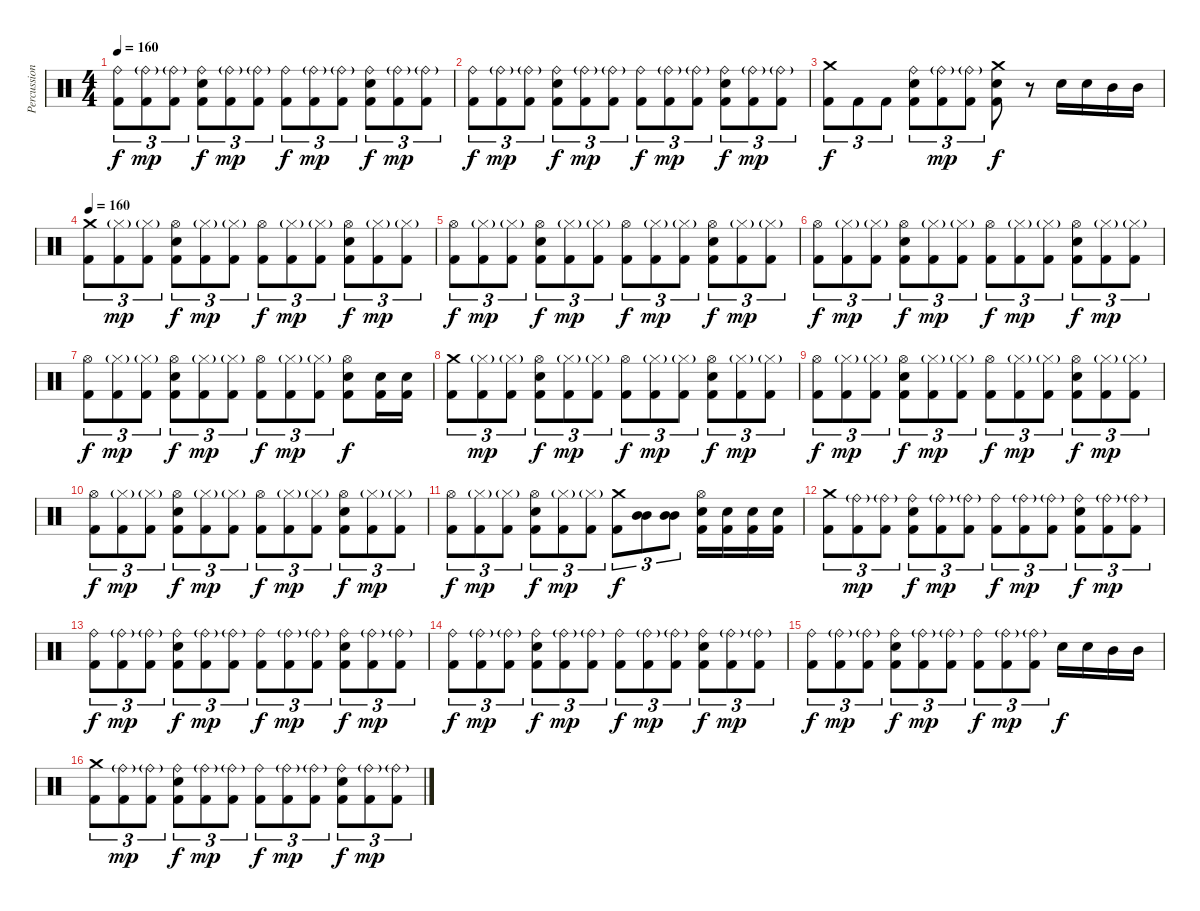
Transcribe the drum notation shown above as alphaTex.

\track ("Percussions" "Percussion") {instrument percussion}
\staff {score}
\articulation defaults
\ts (4 4)
\tempo 160
\clef neutral
\ks c
("Ride (bell)" "Kick (hit) 2").8{tu (3 2) dy f} ("Ride (bell)"{g} "Kick (hit) 2").8{tu (3 2) dy mp} ("Ride (bell)"{g} "Kick (hit) 2").8{tu (3 2)} ("Ride (bell)" "Electric Snare (hit)" "Kick (hit) 2").8{tu (3 2) dy f} ("Ride (bell)"{g} "Kick (hit) 2").8{tu (3 2) dy mp} ("Ride (bell)"{g} "Kick (hit) 2").8{tu (3 2)} ("Ride (bell)" "Kick (hit) 2").8{tu (3 2) dy f} ("Ride (bell)"{g} "Kick (hit) 2").8{tu (3 2) dy mp} ("Ride (bell)"{g} "Kick (hit) 2").8{tu (3 2)} ("Ride (bell)" "Electric Snare (hit)" "Kick (hit) 2").8{tu (3 2) dy f} ("Ride (bell)"{g} "Kick (hit) 2").8{tu (3 2) dy mp} ("Ride (bell)"{g} "Kick (hit) 2").8{tu (3 2)} |
("Ride (bell)" "Kick (hit) 2").8{tu (3 2) dy f} ("Ride (bell)"{g} "Kick (hit) 2").8{tu (3 2) dy mp} ("Ride (bell)"{g} "Kick (hit) 2").8{tu (3 2)} ("Ride (bell)" "Electric Snare (hit)" "Kick (hit) 2").8{tu (3 2) dy f} ("Ride (bell)"{g} "Kick (hit) 2").8{tu (3 2) dy mp} ("Ride (bell)"{g} "Kick (hit) 2").8{tu (3 2)} ("Ride (bell)" "Kick (hit) 2").8{tu (3 2) dy f} ("Ride (bell)"{g} "Kick (hit) 2").8{tu (3 2) dy mp} ("Ride (bell)"{g} "Kick (hit) 2").8{tu (3 2)} ("Ride (bell)" "Electric Snare (hit)" "Kick (hit) 2").8{tu (3 2) dy f} ("Ride (bell)"{g} "Kick (hit) 2").8{tu (3 2) dy mp} ("Ride (bell)"{g} "Kick (hit) 2").8{tu (3 2)} |
("Crash medium (hit)" "Kick (hit) 2").8{tu (3 2) dy f} "Kick (hit) 2".8{tu (3 2)} "Kick (hit) 2".8{tu (3 2)} ("Ride (bell)" "Electric Snare (hit)" "Kick (hit) 2").8{tu (3 2)} ("Ride (bell)"{g} "Kick (hit) 2").8{tu (3 2) dy mp} ("Ride (bell)"{g} "Kick (hit) 2").8{tu (3 2)} ("Crash medium (hit)" "Electric Snare (hit)" "Kick (hit) 2").8{dy f} r.8 "Electric Snare (hit)".16 "Electric Snare (hit)".16 "Mid Tom (hit)".16 "Mid Tom (hit)".16 |
\tempo 160
("Crash medium (hit)" "Kick (hit) 2").8{tu (3 2)} ("Hi-Hat (closed)"{g} "Kick (hit) 2").8{tu (3 2) dy mp} ("Hi-Hat (closed)"{g} "Kick (hit) 2").8{tu (3 2)} ("Hi-Hat (open)" "Electric Snare (hit)" "Kick (hit) 2").8{tu (3 2) dy f} ("Hi-Hat (closed)"{g} "Kick (hit) 2").8{tu (3 2) dy mp} ("Hi-Hat (closed)"{g} "Kick (hit) 2").8{tu (3 2)} ("Hi-Hat (open)" "Kick (hit) 2").8{tu (3 2) dy f} ("Hi-Hat (closed)"{g} "Kick (hit) 2").8{tu (3 2) dy mp} ("Hi-Hat (closed)"{g} "Kick (hit) 2").8{tu (3 2)} ("Hi-Hat (open)" "Electric Snare (hit)" "Kick (hit) 2").8{tu (3 2) dy f} ("Hi-Hat (closed)"{g} "Kick (hit) 2").8{tu (3 2) dy mp} ("Hi-Hat (closed)"{g} "Kick (hit) 2").8{tu (3 2)} |
("Hi-Hat (open)" "Kick (hit) 2").8{tu (3 2) dy f} ("Hi-Hat (closed)"{g} "Kick (hit) 2").8{tu (3 2) dy mp} ("Hi-Hat (closed)"{g} "Kick (hit) 2").8{tu (3 2)} ("Hi-Hat (open)" "Electric Snare (hit)" "Kick (hit) 2").8{tu (3 2) dy f} ("Hi-Hat (closed)"{g} "Kick (hit) 2").8{tu (3 2) dy mp} ("Hi-Hat (closed)"{g} "Kick (hit) 2").8{tu (3 2)} ("Hi-Hat (open)" "Kick (hit) 2").8{tu (3 2) dy f} ("Hi-Hat (closed)"{g} "Kick (hit) 2").8{tu (3 2) dy mp} ("Hi-Hat (closed)"{g} "Kick (hit) 2").8{tu (3 2)} ("Hi-Hat (open)" "Electric Snare (hit)" "Kick (hit) 2").8{tu (3 2) dy f} ("Hi-Hat (closed)"{g} "Kick (hit) 2").8{tu (3 2) dy mp} ("Hi-Hat (closed)"{g} "Kick (hit) 2").8{tu (3 2)} |
("Hi-Hat (open)" "Kick (hit) 2").8{tu (3 2) dy f} ("Hi-Hat (closed)"{g} "Kick (hit) 2").8{tu (3 2) dy mp} ("Hi-Hat (closed)"{g} "Kick (hit) 2").8{tu (3 2)} ("Hi-Hat (open)" "Electric Snare (hit)" "Kick (hit) 2").8{tu (3 2) dy f} ("Hi-Hat (closed)"{g} "Kick (hit) 2").8{tu (3 2) dy mp} ("Hi-Hat (closed)"{g} "Kick (hit) 2").8{tu (3 2)} ("Hi-Hat (open)" "Kick (hit) 2").8{tu (3 2) dy f} ("Hi-Hat (closed)"{g} "Kick (hit) 2").8{tu (3 2) dy mp} ("Hi-Hat (closed)"{g} "Kick (hit) 2").8{tu (3 2)} ("Hi-Hat (open)" "Electric Snare (hit)" "Kick (hit) 2").8{tu (3 2) dy f} ("Hi-Hat (closed)"{g} "Kick (hit) 2").8{tu (3 2) dy mp} ("Hi-Hat (closed)"{g} "Kick (hit) 2").8{tu (3 2)} |
("Hi-Hat (open)" "Kick (hit) 2").8{tu (3 2) dy f} ("Hi-Hat (closed)"{g} "Kick (hit) 2").8{tu (3 2) dy mp} ("Hi-Hat (closed)"{g} "Kick (hit) 2").8{tu (3 2)} ("Hi-Hat (open)" "Electric Snare (hit)" "Kick (hit) 2").8{tu (3 2) dy f} ("Hi-Hat (closed)"{g} "Kick (hit) 2").8{tu (3 2) dy mp} ("Hi-Hat (closed)"{g} "Kick (hit) 2").8{tu (3 2)} ("Hi-Hat (open)" "Kick (hit) 2").8{tu (3 2) dy f} ("Hi-Hat (closed)"{g} "Kick (hit) 2").8{tu (3 2) dy mp} ("Hi-Hat (closed)"{g} "Kick (hit) 2").8{tu (3 2)} ("Hi-Hat (open)" "Electric Snare (hit)" "Kick (hit) 2").8{dy f} ("Electric Snare (hit)" "Kick (hit) 2").16 ("Electric Snare (hit)" "Kick (hit) 2").16 |
("Crash medium (hit)" "Kick (hit) 2").8{tu (3 2)} ("Hi-Hat (closed)"{g} "Kick (hit) 2").8{tu (3 2) dy mp} ("Hi-Hat (closed)"{g} "Kick (hit) 2").8{tu (3 2)} ("Hi-Hat (open)" "Electric Snare (hit)" "Kick (hit) 2").8{tu (3 2) dy f} ("Hi-Hat (closed)"{g} "Kick (hit) 2").8{tu (3 2) dy mp} ("Hi-Hat (closed)"{g} "Kick (hit) 2").8{tu (3 2)} ("Hi-Hat (open)" "Kick (hit) 2").8{tu (3 2) dy f} ("Hi-Hat (closed)"{g} "Kick (hit) 2").8{tu (3 2) dy mp} ("Hi-Hat (closed)"{g} "Kick (hit) 2").8{tu (3 2)} ("Hi-Hat (open)" "Electric Snare (hit)" "Kick (hit) 2").8{tu (3 2) dy f} ("Hi-Hat (closed)"{g} "Kick (hit) 2").8{tu (3 2) dy mp} ("Hi-Hat (closed)"{g} "Kick (hit) 2").8{tu (3 2)} |
("Hi-Hat (open)" "Kick (hit) 2").8{tu (3 2) dy f} ("Hi-Hat (closed)"{g} "Kick (hit) 2").8{tu (3 2) dy mp} ("Hi-Hat (closed)"{g} "Kick (hit) 2").8{tu (3 2)} ("Hi-Hat (open)" "Electric Snare (hit)" "Kick (hit) 2").8{tu (3 2) dy f} ("Hi-Hat (closed)"{g} "Kick (hit) 2").8{tu (3 2) dy mp} ("Hi-Hat (closed)"{g} "Kick (hit) 2").8{tu (3 2)} ("Hi-Hat (open)" "Kick (hit) 2").8{tu (3 2) dy f} ("Hi-Hat (closed)"{g} "Kick (hit) 2").8{tu (3 2) dy mp} ("Hi-Hat (closed)"{g} "Kick (hit) 2").8{tu (3 2)} ("Hi-Hat (open)" "Electric Snare (hit)" "Kick (hit) 2").8{tu (3 2) dy f} ("Hi-Hat (closed)"{g} "Kick (hit) 2").8{tu (3 2) dy mp} ("Hi-Hat (closed)"{g} "Kick (hit) 2").8{tu (3 2)} |
("Hi-Hat (open)" "Kick (hit) 2").8{tu (3 2) dy f} ("Hi-Hat (closed)"{g} "Kick (hit) 2").8{tu (3 2) dy mp} ("Hi-Hat (closed)"{g} "Kick (hit) 2").8{tu (3 2)} ("Hi-Hat (open)" "Electric Snare (hit)" "Kick (hit) 2").8{tu (3 2) dy f} ("Hi-Hat (closed)"{g} "Kick (hit) 2").8{tu (3 2) dy mp} ("Hi-Hat (closed)"{g} "Kick (hit) 2").8{tu (3 2)} ("Hi-Hat (open)" "Kick (hit) 2").8{tu (3 2) dy f} ("Hi-Hat (closed)"{g} "Kick (hit) 2").8{tu (3 2) dy mp} ("Hi-Hat (closed)"{g} "Kick (hit) 2").8{tu (3 2)} ("Hi-Hat (open)" "Electric Snare (hit)" "Kick (hit) 2").8{tu (3 2) dy f} ("Hi-Hat (closed)"{g} "Kick (hit) 2").8{tu (3 2) dy mp} ("Hi-Hat (closed)"{g} "Kick (hit) 2").8{tu (3 2)} |
("Hi-Hat (open)" "Kick (hit) 2").8{tu (3 2) dy f} ("Hi-Hat (closed)"{g} "Kick (hit) 2").8{tu (3 2) dy mp} ("Hi-Hat (closed)"{g} "Kick (hit) 2").8{tu (3 2)} ("Hi-Hat (open)" "Electric Snare (hit)" "Kick (hit) 2").8{tu (3 2) dy f} ("Hi-Hat (closed)"{g} "Kick (hit) 2").8{tu (3 2) dy mp} ("Hi-Hat (closed)"{g} "Kick (hit) 2").8{tu (3 2)} ("Crash medium (hit)" "Kick (hit) 2").8{tu (3 2) dy f} ("Mid Tom (hit)" "Mid Tom (hit)").8{tu (3 2)} ("Mid Tom (hit)" "Mid Tom (hit)").8{tu (3 2)} ("Hi-Hat (open)" "Electric Snare (hit)" "Kick (hit) 2").16 ("Electric Snare (hit)" "Kick (hit) 2").16 ("Snare (hit) 2" "Kick (hit) 2").16 ("Snare (hit) 2" "Kick (hit) 2").16 |
("Crash medium (hit)" "Kick (hit) 2").8{tu (3 2)} ("Ride (bell)"{g} "Kick (hit) 2").8{tu (3 2) dy mp} ("Ride (bell)"{g} "Kick (hit) 2").8{tu (3 2)} ("Ride (bell)" "Electric Snare (hit)" "Kick (hit) 2").8{tu (3 2) dy f} ("Ride (bell)"{g} "Kick (hit) 2").8{tu (3 2) dy mp} ("Ride (bell)"{g} "Kick (hit) 2").8{tu (3 2)} ("Ride (bell)" "Kick (hit) 2").8{tu (3 2) dy f} ("Ride (bell)"{g} "Kick (hit) 2").8{tu (3 2) dy mp} ("Ride (bell)"{g} "Kick (hit) 2").8{tu (3 2)} ("Ride (bell)" "Electric Snare (hit)" "Kick (hit) 2").8{tu (3 2) dy f} ("Ride (bell)"{g} "Kick (hit) 2").8{tu (3 2) dy mp} ("Ride (bell)"{g} "Kick (hit) 2").8{tu (3 2)} |
("Ride (bell)" "Kick (hit) 2").8{tu (3 2) dy f} ("Ride (bell)"{g} "Kick (hit) 2").8{tu (3 2) dy mp} ("Ride (bell)"{g} "Kick (hit) 2").8{tu (3 2)} ("Ride (bell)" "Electric Snare (hit)" "Kick (hit) 2").8{tu (3 2) dy f} ("Ride (bell)"{g} "Kick (hit) 2").8{tu (3 2) dy mp} ("Ride (bell)"{g} "Kick (hit) 2").8{tu (3 2)} ("Ride (bell)" "Kick (hit) 2").8{tu (3 2) dy f} ("Ride (bell)"{g} "Kick (hit) 2").8{tu (3 2) dy mp} ("Ride (bell)"{g} "Kick (hit) 2").8{tu (3 2)} ("Ride (bell)" "Electric Snare (hit)" "Kick (hit) 2").8{tu (3 2) dy f} ("Ride (bell)"{g} "Kick (hit) 2").8{tu (3 2) dy mp} ("Ride (bell)"{g} "Kick (hit) 2").8{tu (3 2)} |
("Ride (bell)" "Kick (hit) 2").8{tu (3 2) dy f} ("Ride (bell)"{g} "Kick (hit) 2").8{tu (3 2) dy mp} ("Ride (bell)"{g} "Kick (hit) 2").8{tu (3 2)} ("Ride (bell)" "Electric Snare (hit)" "Kick (hit) 2").8{tu (3 2) dy f} ("Ride (bell)"{g} "Kick (hit) 2").8{tu (3 2) dy mp} ("Ride (bell)"{g} "Kick (hit) 2").8{tu (3 2)} ("Ride (bell)" "Kick (hit) 2").8{tu (3 2) dy f} ("Ride (bell)"{g} "Kick (hit) 2").8{tu (3 2) dy mp} ("Ride (bell)"{g} "Kick (hit) 2").8{tu (3 2)} ("Ride (bell)" "Electric Snare (hit)" "Kick (hit) 2").8{tu (3 2) dy f} ("Ride (bell)"{g} "Kick (hit) 2").8{tu (3 2) dy mp} ("Ride (bell)"{g} "Kick (hit) 2").8{tu (3 2)} |
("Ride (bell)" "Kick (hit) 2").8{tu (3 2) dy f} ("Ride (bell)"{g} "Kick (hit) 2").8{tu (3 2) dy mp} ("Ride (bell)"{g} "Kick (hit) 2").8{tu (3 2)} ("Ride (bell)" "Electric Snare (hit)" "Kick (hit) 2").8{tu (3 2) dy f} ("Ride (bell)"{g} "Kick (hit) 2").8{tu (3 2) dy mp} ("Ride (bell)"{g} "Kick (hit) 2").8{tu (3 2)} ("Ride (bell)" "Kick (hit) 2").8{tu (3 2) dy f} ("Ride (bell)"{g} "Kick (hit) 2").8{tu (3 2) dy mp} ("Ride (bell)"{g} "Kick (hit) 2").8{tu (3 2)} "Electric Snare (hit)".16{dy f} "Electric Snare (hit)".16 "Mid Tom (hit)".16 "Mid Tom (hit)".16 |
("Crash medium (hit)" "Kick (hit) 2").8{tu (3 2)} ("Ride (bell)"{g} "Kick (hit) 2").8{tu (3 2) dy mp} ("Ride (bell)"{g} "Kick (hit) 2").8{tu (3 2)} ("Ride (bell)" "Electric Snare (hit)" "Kick (hit) 2").8{tu (3 2) dy f} ("Ride (bell)"{g} "Kick (hit) 2").8{tu (3 2) dy mp} ("Ride (bell)"{g} "Kick (hit) 2").8{tu (3 2)} ("Ride (bell)" "Kick (hit) 2").8{tu (3 2) dy f} ("Ride (bell)"{g} "Kick (hit) 2").8{tu (3 2) dy mp} ("Ride (bell)"{g} "Kick (hit) 2").8{tu (3 2)} ("Ride (bell)" "Electric Snare (hit)" "Kick (hit) 2").8{tu (3 2) dy f} ("Ride (bell)"{g} "Kick (hit) 2").8{tu (3 2) dy mp} ("Ride (bell)"{g} "Kick (hit) 2").8{tu (3 2)}
